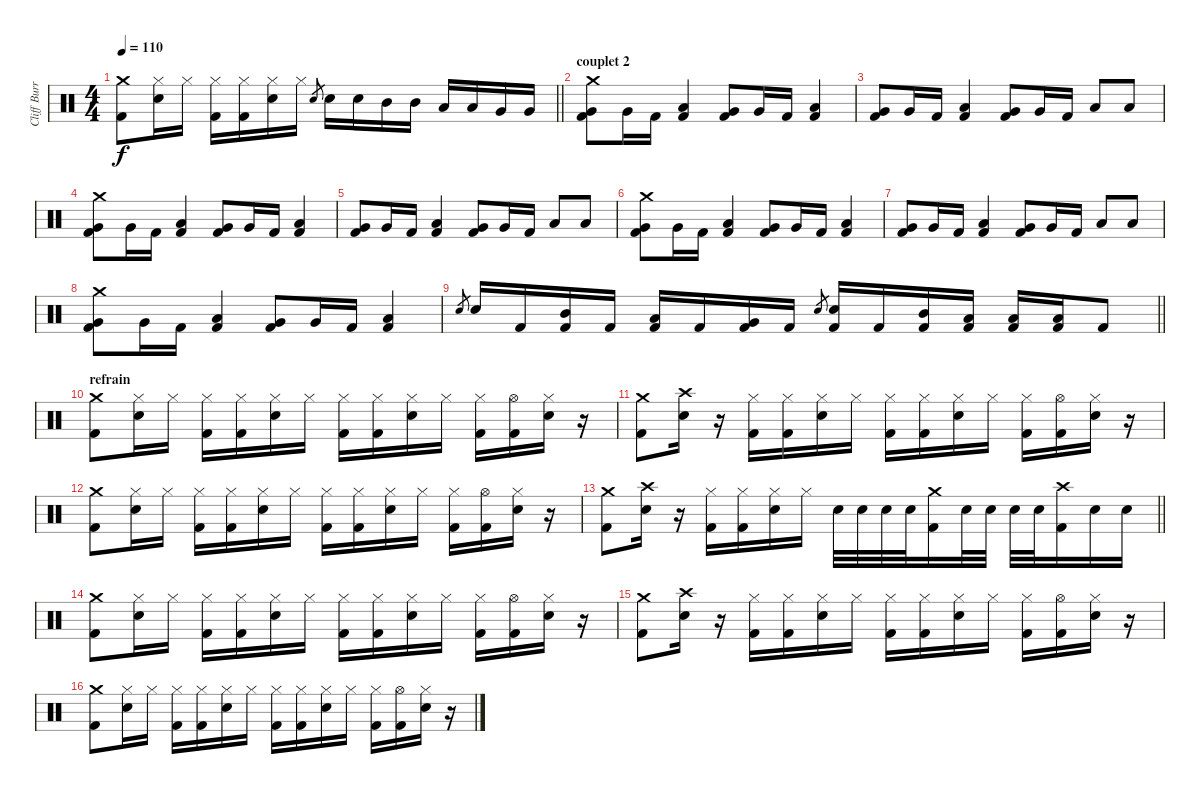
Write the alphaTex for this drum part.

\track ("Cliff Burr" "Cliff Burr") {instrument percussion}
\staff {score}
\articulation defaults
\ts (4 4)
\tempo 110
\clef neutral
\barLineRight lightlight
\ks c
("Crash medium (hit)" "Kick (hit) 2").8{dy f} ("Hi-Hat (closed)" "Electric Snare (hit)").16 "Hi-Hat (closed)".16 ("Hi-Hat (closed)" "Kick (hit) 2").16 ("Hi-Hat (closed)" "Kick (hit) 2").16 ("Hi-Hat (closed)" "Electric Snare (hit)").16 "Hi-Hat (closed)".16 "Electric Snare (hit)".8{gr} "Electric Snare (hit)".16 "Electric Snare (hit)".16 "Mid Tom (hit)".16 "Mid Tom (hit)".16 "Low Tom (hit)".16 "Low Tom (hit)".16 "Very Low Tom (hit)".16 "Very Low Tom (hit)".16 |
\section ("" "couplet 2")
("Crash medium (hit)" "Very Low Tom (hit)" "Kick (hit) 2").8 "Very Low Tom (hit)".16 "Kick (hit) 2".16 ("Low Tom (hit)" "Kick (hit) 2").4 ("Very Low Tom (hit)" "Kick (hit) 2").8 "Very Low Tom (hit)".16 "Kick (hit) 2".16 ("Low Tom (hit)" "Kick (hit) 2").4 |
("Very Low Tom (hit)" "Kick (hit) 2").8 "Very Low Tom (hit)".16 "Kick (hit) 2".16 ("Low Tom (hit)" "Kick (hit) 2").4 ("Very Low Tom (hit)" "Kick (hit) 2").8 "Very Low Tom (hit)".16 "Kick (hit) 2".16 "Low Tom (hit)".8 "Low Tom (hit)".8 |
("Crash medium (hit)" "Very Low Tom (hit)" "Kick (hit) 2").8 "Very Low Tom (hit)".16 "Kick (hit) 2".16 ("Low Tom (hit)" "Kick (hit) 2").4 ("Very Low Tom (hit)" "Kick (hit) 2").8 "Very Low Tom (hit)".16 "Kick (hit) 2".16 ("Low Tom (hit)" "Kick (hit) 2").4 |
("Very Low Tom (hit)" "Kick (hit) 2").8 "Very Low Tom (hit)".16 "Kick (hit) 2".16 ("Low Tom (hit)" "Kick (hit) 2").4 ("Very Low Tom (hit)" "Kick (hit) 2").8 "Very Low Tom (hit)".16 "Kick (hit) 2".16 "Low Tom (hit)".8 "Low Tom (hit)".8 |
("Crash medium (hit)" "Very Low Tom (hit)" "Kick (hit) 2").8 "Very Low Tom (hit)".16 "Kick (hit) 2".16 ("Low Tom (hit)" "Kick (hit) 2").4 ("Very Low Tom (hit)" "Kick (hit) 2").8 "Very Low Tom (hit)".16 "Kick (hit) 2".16 ("Low Tom (hit)" "Kick (hit) 2").4 |
("Very Low Tom (hit)" "Kick (hit) 2").8 "Very Low Tom (hit)".16 "Kick (hit) 2".16 ("Low Tom (hit)" "Kick (hit) 2").4 ("Very Low Tom (hit)" "Kick (hit) 2").8 "Very Low Tom (hit)".16 "Kick (hit) 2".16 "Low Tom (hit)".8 "Low Tom (hit)".8 |
("Crash medium (hit)" "Very Low Tom (hit)" "Kick (hit) 2").8 "Very Low Tom (hit)".16 "Kick (hit) 2".16 ("Low Tom (hit)" "Kick (hit) 2").4 ("Very Low Tom (hit)" "Kick (hit) 2").8 "Very Low Tom (hit)".16 "Kick (hit) 2".16 ("Low Tom (hit)" "Kick (hit) 2").4 |
\barLineRight lightlight "Electric Snare (hit)".8{gr} "Electric Snare (hit)".16 "Kick (hit) 2".16
("Mid Tom (hit)" "Kick (hit) 2").16 "Kick (hit) 2".16 ("Low Tom (hit)" "Kick (hit) 2").16 "Kick (hit) 2".16 ("Very Low Tom (hit)" "Kick (hit) 2").16 "Kick (hit) 2".16 "Electric Snare (hit)".8{gr} ("Electric Snare (hit)" "Kick (hit) 2").16 "Kick (hit) 2".16 ("Mid Tom (hit)" "Kick (hit) 2").16 ("Low Tom (hit)" "Kick (hit) 2").16 ("Low Tom (hit)" "Kick (hit) 2").16 ("Low Tom (hit)" "Kick (hit) 2").16 "Kick (hit) 2".8 |
\section ("" "refrain")
("Crash medium (hit)" "Kick (hit) 2").8 ("Hi-Hat (closed)" "Electric Snare (hit)").16 "Hi-Hat (closed)".16 ("Hi-Hat (closed)" "Kick (hit) 2").16 ("Hi-Hat (closed)" "Kick (hit) 2").16 ("Hi-Hat (closed)" "Electric Snare (hit)").16 "Hi-Hat (closed)".16 ("Hi-Hat (closed)" "Kick (hit) 2").16 ("Hi-Hat (closed)" "Kick (hit) 2").16 ("Hi-Hat (closed)" "Electric Snare (hit)").16 "Hi-Hat (closed)".16 ("Hi-Hat (closed)" "Kick (hit) 2").16 ("Hi-Hat (open)" "Kick (hit) 2").16 ("Hi-Hat (closed)" "Electric Snare (hit)").16 r.16 |
("Crash medium (hit)" "Kick (hit) 2").8 ("Crash high (hit)" "Electric Snare (hit)").16 r.16 ("Hi-Hat (closed)" "Kick (hit) 2").16 ("Hi-Hat (closed)" "Kick (hit) 2").16 ("Hi-Hat (closed)" "Electric Snare (hit)").16 "Hi-Hat (closed)".16 ("Hi-Hat (closed)" "Kick (hit) 2").16 ("Hi-Hat (closed)" "Kick (hit) 2").16 ("Hi-Hat (closed)" "Electric Snare (hit)").16 "Hi-Hat (closed)".16 ("Hi-Hat (closed)" "Kick (hit) 2").16 ("Hi-Hat (open)" "Kick (hit) 2").16 ("Hi-Hat (closed)" "Electric Snare (hit)").16 r.16 |
("Crash medium (hit)" "Kick (hit) 2").8 ("Hi-Hat (closed)" "Electric Snare (hit)").16 "Hi-Hat (closed)".16 ("Hi-Hat (closed)" "Kick (hit) 2").16 ("Hi-Hat (closed)" "Kick (hit) 2").16 ("Hi-Hat (closed)" "Electric Snare (hit)").16 "Hi-Hat (closed)".16 ("Hi-Hat (closed)" "Kick (hit) 2").16 ("Hi-Hat (closed)" "Kick (hit) 2").16 ("Hi-Hat (closed)" "Electric Snare (hit)").16 "Hi-Hat (closed)".16 ("Hi-Hat (closed)" "Kick (hit) 2").16 ("Hi-Hat (open)" "Kick (hit) 2").16 ("Hi-Hat (closed)" "Electric Snare (hit)").16 r.16 |
\barLineRight lightlight
("Crash medium (hit)" "Kick (hit) 2").8 ("Crash high (hit)" "Electric Snare (hit)").16 r.16 ("Hi-Hat (closed)" "Kick (hit) 2").16 ("Hi-Hat (closed)" "Kick (hit) 2").16 ("Hi-Hat (closed)" "Electric Snare (hit)").16 "Hi-Hat (closed)".16 "Electric Snare (hit)".32 "Electric Snare (hit)".32 "Electric Snare (hit)".32 "Electric Snare (hit)".32 ("Crash medium (hit)" "Kick (hit) 2").16 "Electric Snare (hit)".32 "Electric Snare (hit)".32 "Electric Snare (hit)".32 "Electric Snare (hit)".32 ("Crash high (hit)" "Kick (hit) 2").16 "Electric Snare (hit)".16 "Electric Snare (hit)".16 |
("Crash medium (hit)" "Kick (hit) 2").8 ("Hi-Hat (closed)" "Electric Snare (hit)").16 "Hi-Hat (closed)".16 ("Hi-Hat (closed)" "Kick (hit) 2").16 ("Hi-Hat (closed)" "Kick (hit) 2").16 ("Hi-Hat (closed)" "Electric Snare (hit)").16 "Hi-Hat (closed)".16 ("Hi-Hat (closed)" "Kick (hit) 2").16 ("Hi-Hat (closed)" "Kick (hit) 2").16 ("Hi-Hat (closed)" "Electric Snare (hit)").16 "Hi-Hat (closed)".16 ("Hi-Hat (closed)" "Kick (hit) 2").16 ("Hi-Hat (open)" "Kick (hit) 2").16 ("Hi-Hat (closed)" "Electric Snare (hit)").16 r.16 |
("Crash medium (hit)" "Kick (hit) 2").8 ("Crash high (hit)" "Electric Snare (hit)").16 r.16 ("Hi-Hat (closed)" "Kick (hit) 2").16 ("Hi-Hat (closed)" "Kick (hit) 2").16 ("Hi-Hat (closed)" "Electric Snare (hit)").16 "Hi-Hat (closed)".16 ("Hi-Hat (closed)" "Kick (hit) 2").16 ("Hi-Hat (closed)" "Kick (hit) 2").16 ("Hi-Hat (closed)" "Electric Snare (hit)").16 "Hi-Hat (closed)".16 ("Hi-Hat (closed)" "Kick (hit) 2").16 ("Hi-Hat (open)" "Kick (hit) 2").16 ("Hi-Hat (closed)" "Electric Snare (hit)").16 r.16 |
("Crash medium (hit)" "Kick (hit) 2").8 ("Hi-Hat (closed)" "Electric Snare (hit)").16 "Hi-Hat (closed)".16 ("Hi-Hat (closed)" "Kick (hit) 2").16 ("Hi-Hat (closed)" "Kick (hit) 2").16 ("Hi-Hat (closed)" "Electric Snare (hit)").16 "Hi-Hat (closed)".16 ("Hi-Hat (closed)" "Kick (hit) 2").16 ("Hi-Hat (closed)" "Kick (hit) 2").16 ("Hi-Hat (closed)" "Electric Snare (hit)").16 "Hi-Hat (closed)".16 ("Hi-Hat (closed)" "Kick (hit) 2").16 ("Hi-Hat (open)" "Kick (hit) 2").16 ("Hi-Hat (closed)" "Electric Snare (hit)").16 r.16
